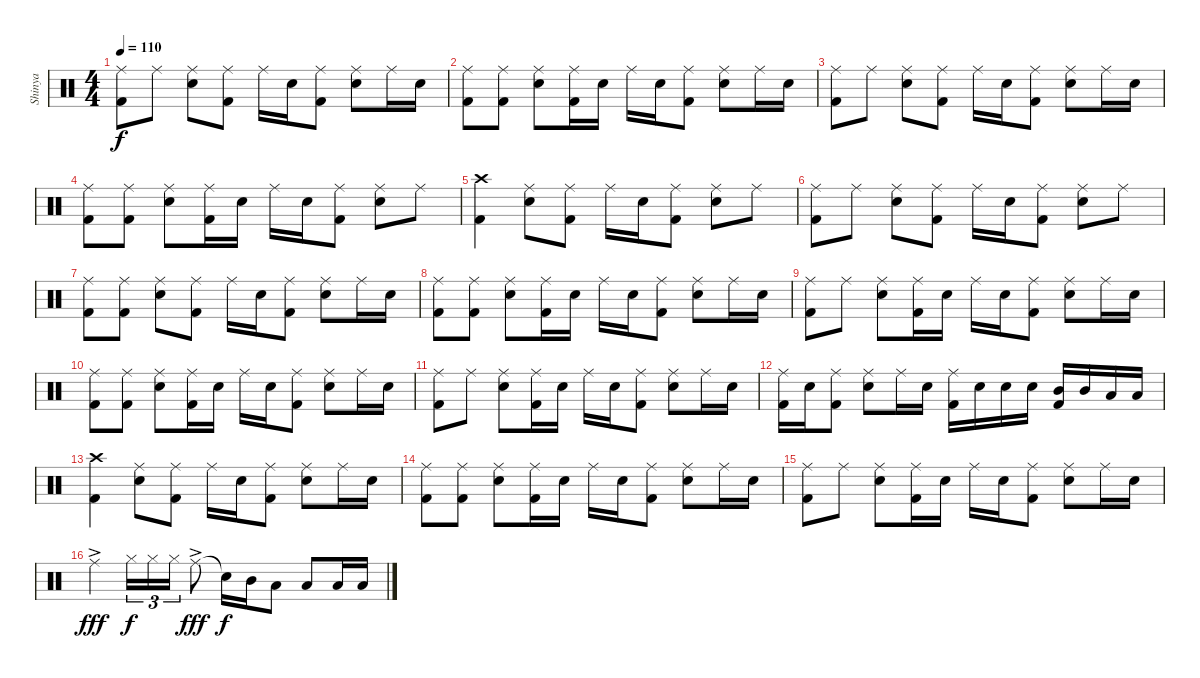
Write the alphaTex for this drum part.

\track ("Shinya" "Shinya") {instrument percussion}
\staff {score}
\articulation defaults
\ts (4 4)
\tempo 110
\clef neutral
\ks c
("Ride (middle)" "Kick (hit) 2").8{dy f} "Ride (middle)".8 ("Ride (middle)" "Snare (hit) 2").8 ("Ride (middle)" "Kick (hit) 2").8 "Ride (middle)".16 "Snare (hit) 2".16 ("Ride (middle)" "Kick (hit) 2").8 ("Ride (middle)" "Snare (hit) 2").8 "Ride (middle)".16 "Snare (hit) 2".16 |
("Ride (middle)" "Kick (hit) 2").8 ("Ride (middle)" "Kick (hit) 2").8 ("Ride (middle)" "Snare (hit) 2").8 ("Ride (middle)" "Kick (hit) 2").16 "Snare (hit) 2".16 "Ride (middle)".16 "Snare (hit) 2".16 ("Ride (middle)" "Kick (hit) 2").8 ("Ride (middle)" "Snare (hit) 2").8 "Ride (middle)".16 "Snare (hit) 2".16 |
("Ride (middle)" "Kick (hit) 2").8 "Ride (middle)".8 ("Ride (middle)" "Snare (hit) 2").8 ("Ride (middle)" "Kick (hit) 2").8 "Ride (middle)".16 "Snare (hit) 2".16 ("Ride (middle)" "Kick (hit) 2").8 ("Ride (middle)" "Snare (hit) 2").8 "Ride (middle)".16 "Snare (hit) 2".16 |
("Ride (middle)" "Kick (hit) 2").8 ("Ride (middle)" "Kick (hit) 2").8 ("Ride (middle)" "Snare (hit) 2").8 ("Ride (middle)" "Kick (hit) 2").16 "Snare (hit) 2".16 "Ride (middle)".16 "Snare (hit) 2".16 ("Ride (middle)" "Kick (hit) 2").8 ("Ride (middle)" "Snare (hit) 2").8 "Ride (middle)".8 |
("Crash high (hit)" "Kick (hit) 2").4 ("Ride (middle)" "Snare (hit) 2").8 ("Ride (middle)" "Kick (hit) 2").8 "Ride (middle)".16 "Snare (hit) 2".16 ("Ride (middle)" "Kick (hit) 2").8 ("Ride (middle)" "Snare (hit) 2").8 "Ride (middle)".8 |
("Ride (middle)" "Kick (hit) 2").8 "Ride (middle)".8 ("Ride (middle)" "Snare (hit) 2").8 ("Ride (middle)" "Kick (hit) 2").8 "Ride (middle)".16 "Snare (hit) 2".16 ("Ride (middle)" "Kick (hit) 2").8 ("Ride (middle)" "Snare (hit) 2").8 "Ride (middle)".8 |
("Ride (middle)" "Kick (hit) 2").8 ("Ride (middle)" "Kick (hit) 2").8 ("Ride (middle)" "Snare (hit) 2").8 ("Ride (middle)" "Kick (hit) 2").8 "Ride (middle)".16 "Snare (hit) 2".16 ("Ride (middle)" "Kick (hit) 2").8 ("Ride (middle)" "Snare (hit) 2").8 "Ride (middle)".16 "Snare (hit) 2".16 |
("Ride (middle)" "Kick (hit) 2").8 ("Ride (middle)" "Kick (hit) 2").8 ("Ride (middle)" "Snare (hit) 2").8 ("Ride (middle)" "Kick (hit) 2").16 "Snare (hit) 2".16 "Ride (middle)".16 "Snare (hit) 2".16 ("Ride (middle)" "Kick (hit) 2").8 ("Ride (middle)" "Snare (hit) 2").8 "Ride (middle)".16 "Snare (hit) 2".16 |
("Ride (middle)" "Kick (hit) 2").8 "Ride (middle)".8 ("Ride (middle)" "Snare (hit) 2").8 ("Ride (middle)" "Kick (hit) 2").16 "Snare (hit) 2".16 "Ride (middle)".16 "Snare (hit) 2".16 ("Ride (middle)" "Kick (hit) 2").8 ("Ride (middle)" "Snare (hit) 2").8 "Ride (middle)".16 "Snare (hit) 2".16 |
("Ride (middle)" "Kick (hit) 2").8 ("Ride (middle)" "Kick (hit) 2").8 ("Ride (middle)" "Snare (hit) 2").8 ("Ride (middle)" "Kick (hit) 2").16 "Snare (hit) 2".16 "Ride (middle)".16 "Snare (hit) 2".16 ("Ride (middle)" "Kick (hit) 2").8 ("Ride (middle)" "Snare (hit) 2").8 "Ride (middle)".16 "Snare (hit) 2".16 |
("Ride (middle)" "Kick (hit) 2").8 "Ride (middle)".8 ("Ride (middle)" "Snare (hit) 2").8 ("Ride (middle)" "Kick (hit) 2").16 "Snare (hit) 2".16 "Ride (middle)".16 "Snare (hit) 2".16 ("Ride (middle)" "Kick (hit) 2").8 ("Ride (middle)" "Snare (hit) 2").8 "Ride (middle)".16 "Snare (hit) 2".16 |
("Ride (middle)" "Kick (hit) 2").16 "Snare (hit) 2".16 ("Ride (middle)" "Kick (hit) 2").8 ("Ride (middle)" "Snare (hit) 2").8 "Ride (middle)".16 "Snare (hit) 2".16 ("Ride (middle)" "Kick (hit) 2").16 "Snare (hit) 2".16 "Snare (hit) 2".16 "Snare (hit) 2".16 ("Mid Tom (hit)" "Kick (hit) 2").16 "Mid Tom (hit)".16 "Low Tom (hit)".16 "Low Tom (hit)".16 |
("Crash high (hit)" "Kick (hit) 2").4 ("Ride (middle)" "Snare (hit) 2").8 ("Ride (middle)" "Kick (hit) 2").8 "Ride (middle)".16 "Snare (hit) 2".16 ("Ride (middle)" "Kick (hit) 2").8 ("Ride (middle)" "Snare (hit) 2").8 "Ride (middle)".16 "Snare (hit) 2".16 |
("Ride (middle)" "Kick (hit) 2").8 ("Ride (middle)" "Kick (hit) 2").8 ("Ride (middle)" "Snare (hit) 2").8 ("Ride (middle)" "Kick (hit) 2").16 "Snare (hit) 2".16 "Ride (middle)".16 "Snare (hit) 2".16 ("Ride (middle)" "Kick (hit) 2").8 ("Ride (middle)" "Snare (hit) 2").8 "Ride (middle)".16 "Snare (hit) 2".16 |
("Ride (middle)" "Kick (hit) 2").8 "Ride (middle)".8 ("Ride (middle)" "Snare (hit) 2").8 ("Ride (middle)" "Kick (hit) 2").16 "Snare (hit) 2".16 "Ride (middle)".16 "Snare (hit) 2".16 ("Ride (middle)" "Kick (hit) 2").8 ("Ride (middle)" "Snare (hit) 2").8 "Ride (middle)".16 "Snare (hit) 2".16 |
"Ride (middle)"{ac}.4{dy fff} "Hi-Hat (closed)".16{tu (3 2) dy f} "Hi-Hat (closed)".16{tu (3 2)} "Hi-Hat (closed)".16{tu (3 2)} "Ride (middle)"{ac}.8{dy fff} "Snare (hit)"{t}.16{dy f} "Mid Tom (hit)".16 "Low Tom (hit)".8 "Low Tom (hit)".8 "Low Floor Tom (hit)".16 "Low Floor Tom (hit)".16
